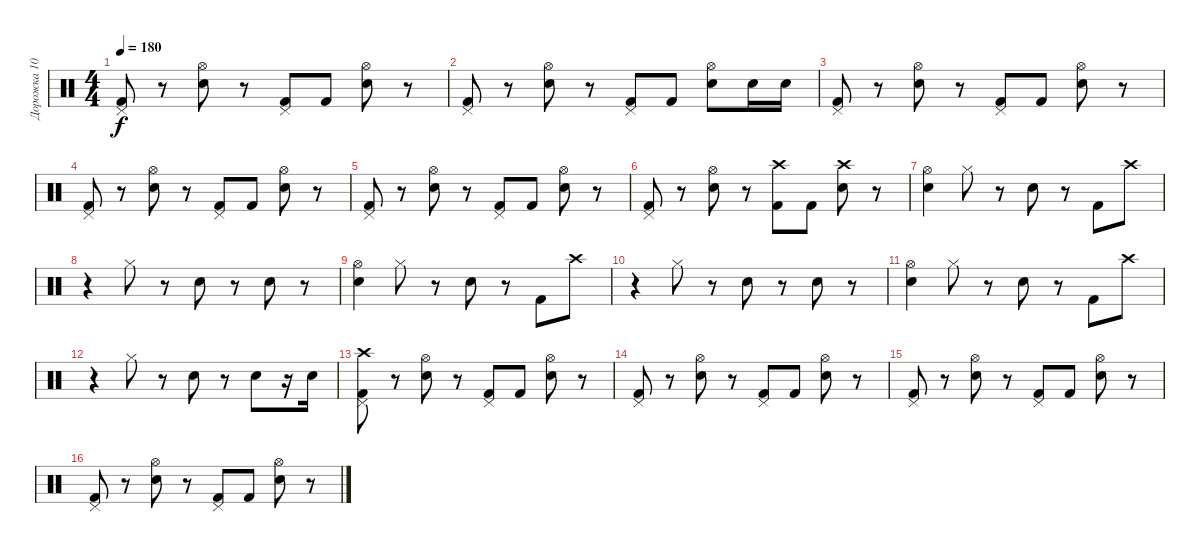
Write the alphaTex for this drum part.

\track ("Дорожка 10" "Дорожка 10") {instrument percussion}
\staff {score}
\articulation defaults
\ts (4 4)
\tempo 180
\clef neutral
\ks c
("Kick (hit) 2" "Pedal Hi-Hat (hit)").8{dy f} r.8 ("Snare (hit) 2" "Hi-Hat (open)").8 r.8 ("Kick (hit) 2" "Pedal Hi-Hat (hit)").8 "Kick (hit) 2".8 ("Snare (hit) 2" "Hi-Hat (open)").8 r.8 |
("Kick (hit) 2" "Pedal Hi-Hat (hit)").8 r.8 ("Snare (hit) 2" "Hi-Hat (open)").8 r.8 ("Kick (hit) 2" "Pedal Hi-Hat (hit)").8 "Kick (hit) 2".8 ("Snare (hit) 2" "Hi-Hat (open)").8 "Snare (hit) 2".16 "Snare (hit) 2".16 |
("Kick (hit) 2" "Pedal Hi-Hat (hit)").8 r.8 ("Snare (hit) 2" "Hi-Hat (open)").8 r.8 ("Kick (hit) 2" "Pedal Hi-Hat (hit)").8 "Kick (hit) 2".8 ("Snare (hit) 2" "Hi-Hat (open)").8 r.8 |
("Kick (hit) 2" "Pedal Hi-Hat (hit)").8 r.8 ("Snare (hit) 2" "Hi-Hat (open)").8 r.8 ("Kick (hit) 2" "Pedal Hi-Hat (hit)").8 "Kick (hit) 2".8 ("Snare (hit) 2" "Hi-Hat (open)").8 r.8 |
("Kick (hit) 2" "Pedal Hi-Hat (hit)").8 r.8 ("Snare (hit) 2" "Hi-Hat (open)").8 r.8 ("Kick (hit) 2" "Pedal Hi-Hat (hit)").8 "Kick (hit) 2".8 ("Snare (hit) 2" "Hi-Hat (open)").8 r.8 |
("Kick (hit) 2" "Pedal Hi-Hat (hit)").8 r.8 ("Snare (hit) 2" "Hi-Hat (open)").8 r.8 ("Kick (hit) 2" "Crash high (hit)").8 "Kick (hit) 2".8 ("Snare (hit) 2" "Crash high (hit)").8 r.8 |
("Snare (hit) 2" "Hi-Hat (open)").4 "Hi-Hat (closed)".8 r.8 "Snare (hit) 2".8 r.8 "Kick (hit) 2".8 "Crash high (hit)".8 |
r.4 "Hi-Hat (closed)".8 r.8 "Snare (hit) 2".8 r.8 "Snare (hit) 2".8 r.8 |
("Snare (hit) 2" "Hi-Hat (open)").4 "Hi-Hat (closed)".8 r.8 "Snare (hit) 2".8 r.8 "Kick (hit) 2".8 "Crash high (hit)".8 |
r.4 "Hi-Hat (closed)".8 r.8 "Snare (hit) 2".8 r.8 "Snare (hit) 2".8 r.8 |
("Snare (hit) 2" "Hi-Hat (open)").4 "Hi-Hat (closed)".8 r.8 "Snare (hit) 2".8 r.8 "Kick (hit) 2".8 "Crash high (hit)".8 |
r.4 "Hi-Hat (closed)".8 r.8 "Snare (hit) 2".8 r.8 "Snare (hit) 2".8 r.16 "Snare (hit) 2".16 |
("Kick (hit) 2" "Crash high (hit)" "Pedal Hi-Hat (hit)").8 r.8 ("Snare (hit) 2" "Hi-Hat (open)").8 r.8 ("Kick (hit) 2" "Pedal Hi-Hat (hit)").8 "Kick (hit) 2".8 ("Snare (hit) 2" "Hi-Hat (open)").8 r.8 |
("Kick (hit) 2" "Pedal Hi-Hat (hit)").8 r.8 ("Snare (hit) 2" "Hi-Hat (open)").8 r.8 ("Kick (hit) 2" "Pedal Hi-Hat (hit)").8 "Kick (hit) 2".8 ("Snare (hit) 2" "Hi-Hat (open)").8 r.8 |
("Kick (hit) 2" "Pedal Hi-Hat (hit)").8 r.8 ("Snare (hit) 2" "Hi-Hat (open)").8 r.8 ("Kick (hit) 2" "Pedal Hi-Hat (hit)").8 "Kick (hit) 2".8 ("Snare (hit) 2" "Hi-Hat (open)").8 r.8 |
("Kick (hit) 2" "Pedal Hi-Hat (hit)").8 r.8 ("Snare (hit) 2" "Hi-Hat (open)").8 r.8 ("Kick (hit) 2" "Pedal Hi-Hat (hit)").8 "Kick (hit) 2".8 ("Snare (hit) 2" "Hi-Hat (open)").8 r.8
